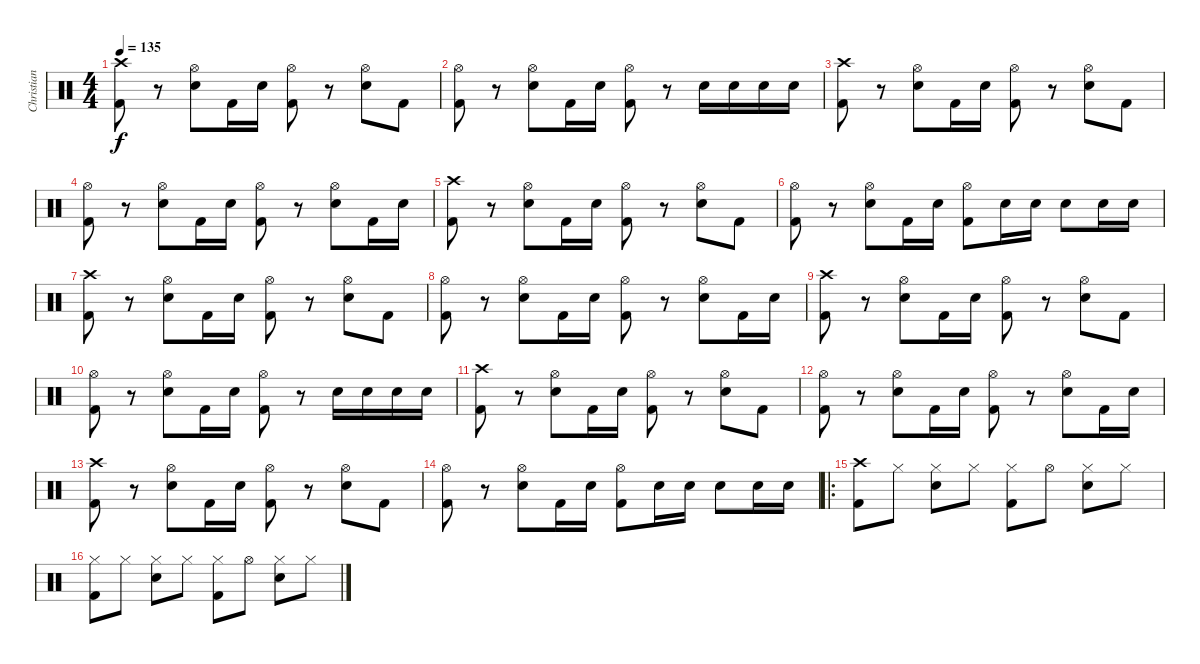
\track ("Christian" "Christian") {instrument percussion}
\staff {score}
\articulation defaults
\ts (4 4)
\tempo 135
\clef neutral
\ks c
("Crash high (hit)" "Kick (hit) 2").8{dy f} r.8 ("Hi-Hat (open)" "Snare (hit) 2").8 "Kick (hit) 2".16 "Snare (hit) 2".16 ("Hi-Hat (open)" "Kick (hit) 2").8 r.8 ("Hi-Hat (open)" "Snare (hit) 2").8 "Kick (hit) 2".8 |
("Hi-Hat (open)" "Kick (hit) 2").8 r.8 ("Hi-Hat (open)" "Snare (hit) 2").8 "Kick (hit) 2".16 "Snare (hit) 2".16 ("Hi-Hat (open)" "Kick (hit) 2").8 r.8 "Snare (hit) 2".16 "Snare (hit) 2".16 "Snare (hit) 2".16 "Snare (hit) 2".16 |
("Crash high (hit)" "Kick (hit) 2").8 r.8 ("Hi-Hat (open)" "Snare (hit) 2").8 "Kick (hit) 2".16 "Snare (hit) 2".16 ("Hi-Hat (open)" "Kick (hit) 2").8 r.8 ("Hi-Hat (open)" "Snare (hit) 2").8 "Kick (hit) 2".8 |
("Hi-Hat (open)" "Kick (hit) 2").8 r.8 ("Hi-Hat (open)" "Snare (hit) 2").8 "Kick (hit) 2".16 "Snare (hit) 2".16 ("Hi-Hat (open)" "Kick (hit) 2").8 r.8 ("Hi-Hat (open)" "Snare (hit) 2").8 "Kick (hit) 2".16 "Snare (hit) 2".16 |
("Crash high (hit)" "Kick (hit) 2").8 r.8 ("Hi-Hat (open)" "Snare (hit) 2").8 "Kick (hit) 2".16 "Snare (hit) 2".16 ("Hi-Hat (open)" "Kick (hit) 2").8 r.8 ("Hi-Hat (open)" "Snare (hit) 2").8 "Kick (hit) 2".8 |
("Hi-Hat (open)" "Kick (hit) 2").8 r.8 ("Hi-Hat (open)" "Snare (hit) 2").8 "Kick (hit) 2".16 "Snare (hit) 2".16 ("Hi-Hat (open)" "Kick (hit) 2").8 "Snare (hit) 2".16 "Snare (hit) 2".16 "Snare (hit) 2".8 "Snare (hit) 2".16 "Snare (hit) 2".16 |
("Crash high (hit)" "Kick (hit) 2").8 r.8 ("Hi-Hat (open)" "Snare (hit) 2").8 "Kick (hit) 2".16 "Snare (hit) 2".16 ("Hi-Hat (open)" "Kick (hit) 2").8 r.8 ("Hi-Hat (open)" "Snare (hit) 2").8 "Kick (hit) 2".8 |
("Hi-Hat (open)" "Kick (hit) 2").8 r.8 ("Hi-Hat (open)" "Snare (hit) 2").8 "Kick (hit) 2".16 "Snare (hit) 2".16 ("Hi-Hat (open)" "Kick (hit) 2").8 r.8 ("Hi-Hat (open)" "Snare (hit) 2").8 "Kick (hit) 2".16 "Snare (hit) 2".16 |
("Crash high (hit)" "Kick (hit) 2").8 r.8 ("Hi-Hat (open)" "Snare (hit) 2").8 "Kick (hit) 2".16 "Snare (hit) 2".16 ("Hi-Hat (open)" "Kick (hit) 2").8 r.8 ("Hi-Hat (open)" "Snare (hit) 2").8 "Kick (hit) 2".8 |
("Hi-Hat (open)" "Kick (hit) 2").8 r.8 ("Hi-Hat (open)" "Snare (hit) 2").8 "Kick (hit) 2".16 "Snare (hit) 2".16 ("Hi-Hat (open)" "Kick (hit) 2").8 r.8 "Snare (hit) 2".16 "Snare (hit) 2".16 "Snare (hit) 2".16 "Snare (hit) 2".16 |
("Crash high (hit)" "Kick (hit) 2").8 r.8 ("Hi-Hat (open)" "Snare (hit) 2").8 "Kick (hit) 2".16 "Snare (hit) 2".16 ("Hi-Hat (open)" "Kick (hit) 2").8 r.8 ("Hi-Hat (open)" "Snare (hit) 2").8 "Kick (hit) 2".8 |
("Hi-Hat (open)" "Kick (hit) 2").8 r.8 ("Hi-Hat (open)" "Snare (hit) 2").8 "Kick (hit) 2".16 "Snare (hit) 2".16 ("Hi-Hat (open)" "Kick (hit) 2").8 r.8 ("Hi-Hat (open)" "Snare (hit) 2").8 "Kick (hit) 2".16 "Snare (hit) 2".16 |
("Crash high (hit)" "Kick (hit) 2").8 r.8 ("Hi-Hat (open)" "Snare (hit) 2").8 "Kick (hit) 2".16 "Snare (hit) 2".16 ("Hi-Hat (open)" "Kick (hit) 2").8 r.8 ("Hi-Hat (open)" "Snare (hit) 2").8 "Kick (hit) 2".8 |
("Hi-Hat (open)" "Kick (hit) 2").8 r.8 ("Hi-Hat (open)" "Snare (hit) 2").8 "Kick (hit) 2".16 "Snare (hit) 2".16 ("Hi-Hat (open)" "Kick (hit) 2").8 "Snare (hit) 2".16 "Snare (hit) 2".16 "Snare (hit) 2".8 "Snare (hit) 2".16 "Snare (hit) 2".16 |
\ro
("Crash high (hit)" "Kick (hit) 2").8 "Hi-Hat (closed)".8 ("Hi-Hat (closed)" "Snare (hit) 2").8 "Hi-Hat (closed)".8 ("Hi-Hat (closed)" "Kick (hit) 2").8 "Hi-Hat (open)".8 ("Hi-Hat (closed)" "Snare (hit) 2").8 "Hi-Hat (closed)".8 |
("Hi-Hat (closed)" "Kick (hit) 2").8 "Hi-Hat (closed)".8 ("Hi-Hat (closed)" "Snare (hit) 2").8 "Hi-Hat (closed)".8 ("Hi-Hat (closed)" "Kick (hit) 2").8 "Hi-Hat (open)".8 ("Hi-Hat (closed)" "Snare (hit) 2").8 "Hi-Hat (closed)".8
